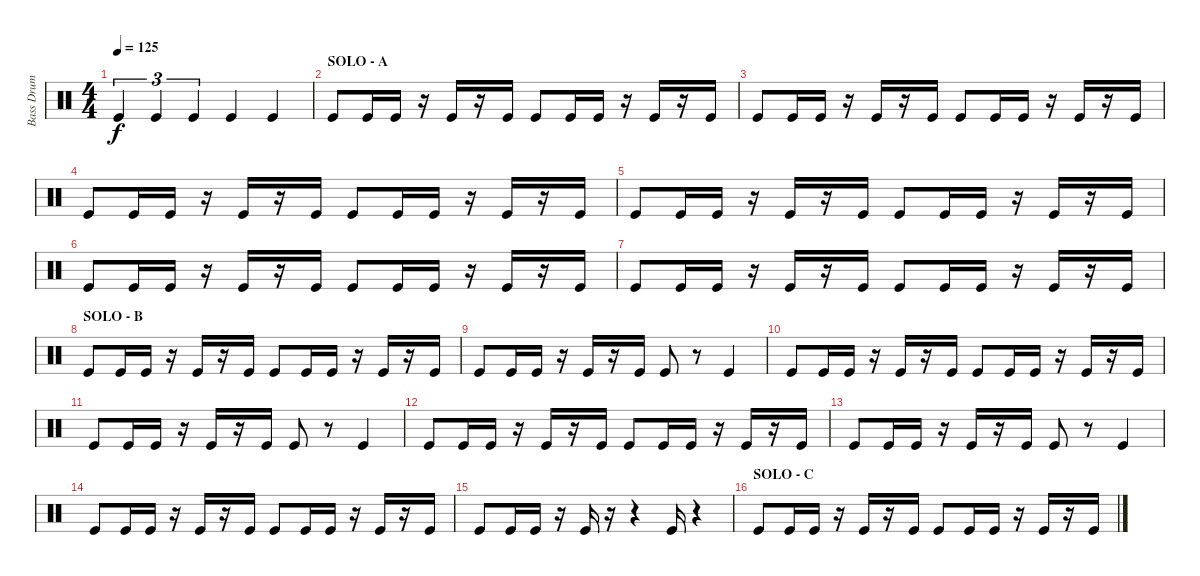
\track ("Bass Drum Boost" "Bass Drum ") {instrument percussion}
\staff {score}
\articulation defaults
\ts (4 4)
\tempo 125
\clef neutral
\ks c "Kick (hit)".4{tu (3 2) dy f} "Kick (hit)".4{tu (3 2)} "Kick (hit)".4{tu (3 2)} "Kick (hit)".4 "Kick (hit)".4
|
\section ("" "SOLO - A")
"Kick (hit)".8 "Kick (hit)".16 "Kick (hit)".16 r.16 "Kick (hit)".16 r.16 "Kick (hit)".16 "Kick (hit)".8 "Kick (hit)".16 "Kick (hit)".16 r.16 "Kick (hit)".16 r.16 "Kick (hit)".16 |
"Kick (hit)".8 "Kick (hit)".16 "Kick (hit)".16 r.16 "Kick (hit)".16 r.16 "Kick (hit)".16 "Kick (hit)".8 "Kick (hit)".16 "Kick (hit)".16 r.16 "Kick (hit)".16 r.16 "Kick (hit)".16 |
"Kick (hit)".8 "Kick (hit)".16 "Kick (hit)".16 r.16 "Kick (hit)".16 r.16 "Kick (hit)".16 "Kick (hit)".8 "Kick (hit)".16 "Kick (hit)".16 r.16 "Kick (hit)".16 r.16 "Kick (hit)".16 |
"Kick (hit)".8 "Kick (hit)".16 "Kick (hit)".16 r.16 "Kick (hit)".16 r.16 "Kick (hit)".16 "Kick (hit)".8 "Kick (hit)".16 "Kick (hit)".16 r.16 "Kick (hit)".16 r.16 "Kick (hit)".16 |
"Kick (hit)".8 "Kick (hit)".16 "Kick (hit)".16 r.16 "Kick (hit)".16 r.16 "Kick (hit)".16 "Kick (hit)".8 "Kick (hit)".16 "Kick (hit)".16 r.16 "Kick (hit)".16 r.16 "Kick (hit)".16 |
"Kick (hit)".8 "Kick (hit)".16 "Kick (hit)".16 r.16 "Kick (hit)".16 r.16 "Kick (hit)".16 "Kick (hit)".8 "Kick (hit)".16 "Kick (hit)".16 r.16 "Kick (hit)".16 r.16 "Kick (hit)".16 |
\section ("" "SOLO - B")
"Kick (hit)".8 "Kick (hit)".16 "Kick (hit)".16 r.16 "Kick (hit)".16 r.16 "Kick (hit)".16 "Kick (hit)".8 "Kick (hit)".16 "Kick (hit)".16 r.16 "Kick (hit)".16 r.16 "Kick (hit)".16 |
"Kick (hit)".8 "Kick (hit)".16 "Kick (hit)".16 r.16 "Kick (hit)".16 r.16 "Kick (hit)".16 "Kick (hit)".8 r.8 "Kick (hit)".4 |
"Kick (hit)".8 "Kick (hit)".16 "Kick (hit)".16 r.16 "Kick (hit)".16 r.16 "Kick (hit)".16 "Kick (hit)".8 "Kick (hit)".16 "Kick (hit)".16 r.16 "Kick (hit)".16 r.16 "Kick (hit)".16 |
"Kick (hit)".8 "Kick (hit)".16 "Kick (hit)".16 r.16 "Kick (hit)".16 r.16 "Kick (hit)".16 "Kick (hit)".8 r.8 "Kick (hit)".4 |
"Kick (hit)".8 "Kick (hit)".16 "Kick (hit)".16 r.16 "Kick (hit)".16 r.16 "Kick (hit)".16 "Kick (hit)".8 "Kick (hit)".16 "Kick (hit)".16 r.16 "Kick (hit)".16 r.16 "Kick (hit)".16 |
"Kick (hit)".8 "Kick (hit)".16 "Kick (hit)".16 r.16 "Kick (hit)".16 r.16 "Kick (hit)".16 "Kick (hit)".8 r.8 "Kick (hit)".4 |
"Kick (hit)".8 "Kick (hit)".16 "Kick (hit)".16 r.16 "Kick (hit)".16 r.16 "Kick (hit)".16 "Kick (hit)".8 "Kick (hit)".16 "Kick (hit)".16 r.16 "Kick (hit)".16 r.16 "Kick (hit)".16 |
"Kick (hit)".8 "Kick (hit)".16 "Kick (hit)".16 r.16 "Kick (hit)".16 r.16 r.4 "Kick (hit)".16 r.4 |
\section ("" "SOLO - C")
"Kick (hit)".8 "Kick (hit)".16 "Kick (hit)".16 r.16 "Kick (hit)".16 r.16 "Kick (hit)".16 "Kick (hit)".8 "Kick (hit)".16 "Kick (hit)".16 r.16 "Kick (hit)".16 r.16 "Kick (hit)".16
